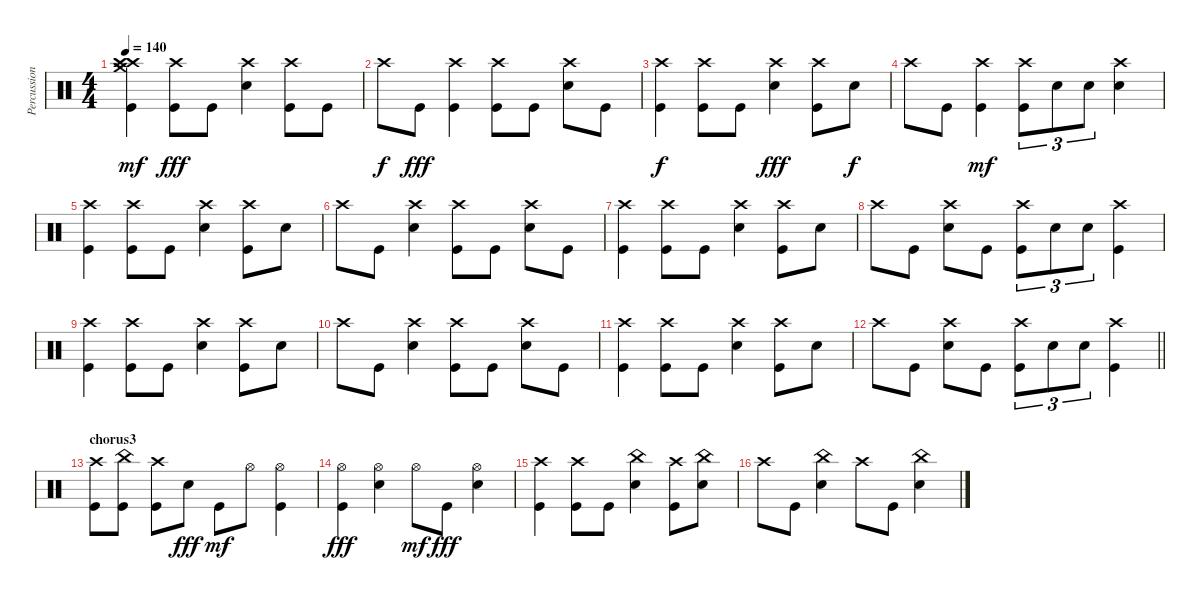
\track ("Percussion" "Percussion") {instrument percussion}
\staff {score}
\articulation defaults
\ts (4 4)
\tempo 140
\clef neutral
\ks c
("Kick (hit)" "Crash high (hit)" "Crash high (hit)" "Crash medium (hit)").4{dy mf} ("Kick (hit)" "Crash high (hit)").8{dy fff} "Kick (hit)".8 ("Crash high (hit)" "Snare (hit) 2").4 ("Crash high (hit)" "Kick (hit)").8 "Kick (hit)".8 |
"Crash high (hit)".8{dy f} "Kick (hit)".8{dy fff} ("Kick (hit)" "Crash high (hit)").4 ("Kick (hit)" "Crash high (hit)").8 "Kick (hit)".8 ("Crash high (hit)" "Snare (hit) 2").8 "Kick (hit)".8 |
("Crash high (hit)" "Kick (hit)").4{dy f} ("Crash high (hit)" "Kick (hit)").8 "Kick (hit)".8 ("Crash high (hit)" "Snare (hit) 2").4{dy fff} ("Crash high (hit)" "Kick (hit)").8 "Snare (hit) 2".8{dy f} |
"Crash high (hit)".8 "Kick (hit)".8 ("Crash high (hit)" "Kick (hit)").4{dy mf} ("Crash high (hit)" "Kick (hit)").8{tu (3 2)} "Snare (hit) 2".8{tu (3 2)} "Snare (hit) 2".8{tu (3 2)} ("Crash high (hit)" "Snare (hit) 2").4 |
("Crash high (hit)" "Kick (hit)").4 ("Crash high (hit)" "Kick (hit)").8 "Kick (hit)".8 ("Crash high (hit)" "Snare (hit) 2").4 ("Crash high (hit)" "Kick (hit)").8 "Snare (hit) 2".8 |
"Crash high (hit)".8 "Kick (hit)".8 ("Crash high (hit)" "Snare (hit) 2").4 ("Crash high (hit)" "Kick (hit)").8 "Kick (hit)".8 ("Crash high (hit)" "Snare (hit) 2").8 "Kick (hit)".8 |
("Crash high (hit)" "Kick (hit)").4 ("Crash high (hit)" "Kick (hit)").8 "Kick (hit)".8 ("Crash high (hit)" "Snare (hit) 2").4 ("Crash high (hit)" "Kick (hit)").8 "Snare (hit) 2".8 |
"Crash high (hit)".8 "Kick (hit)".8 ("Crash high (hit)" "Snare (hit) 2").8 "Kick (hit)".8 ("Crash high (hit)" "Kick (hit)").8{tu (3 2)} "Snare (hit) 2".8{tu (3 2)} "Snare (hit) 2".8{tu (3 2)} ("Crash high (hit)" "Kick (hit)").4 |
("Crash high (hit)" "Kick (hit)").4 ("Crash high (hit)" "Kick (hit)").8 "Kick (hit)".8 ("Crash high (hit)" "Snare (hit) 2").4 ("Crash high (hit)" "Kick (hit)").8 "Snare (hit) 2".8 |
"Crash high (hit)".8 "Kick (hit)".8 ("Crash high (hit)" "Snare (hit) 2").4 ("Crash high (hit)" "Kick (hit)").8 "Kick (hit)".8 ("Crash high (hit)" "Snare (hit) 2").8 "Kick (hit)".8 |
("Crash high (hit)" "Kick (hit)").4 ("Crash high (hit)" "Kick (hit)").8 "Kick (hit)".8 ("Crash high (hit)" "Snare (hit) 2").4 ("Crash high (hit)" "Kick (hit)").8 "Snare (hit) 2".8 |
\barLineRight lightlight "Crash high (hit)".8 "Kick (hit)".8
("Crash high (hit)" "Snare (hit) 2").8 "Kick (hit)".8 ("Crash high (hit)" "Kick (hit)").8{tu (3 2)} "Snare (hit) 2".8{tu (3 2)} "Snare (hit) 2".8{tu (3 2)} ("Crash high (hit)" "Kick (hit)").4 |
\section ("" "chorus3")
("Kick (hit)" "Crash high (hit)").8 ("Kick (hit)" "China (hit)").8 ("Kick (hit)" "Crash high (hit)").8 "Snare (hit) 2".8{dy fff} "Kick (hit)".8{dy mf} "Hi-Hat (open)".8 ("Kick (hit)" "Hi-Hat (open)").4 |
("Hi-Hat (open)" "Kick (hit)").4{dy fff} ("Hi-Hat (open)" "Snare (hit) 2").4 "Hi-Hat (open)".8{dy mf} "Kick (hit)".8{dy fff} ("Hi-Hat (open)" "Snare (hit) 2").4 |
("Kick (hit)" "Crash high (hit)").4 ("Kick (hit)" "Crash high (hit)").8 "Kick (hit)".8 ("Snare (hit) 2" "China (hit)").4 ("Crash high (hit)" "Kick (hit)").8 ("Snare (hit) 2" "China (hit)").8 |
"Crash high (hit)".8 "Kick (hit)".8 ("Snare (hit) 2" "China (hit)").4 "Crash high (hit)".8 "Kick (hit)".8 ("Snare (hit) 2" "China (hit)").4
